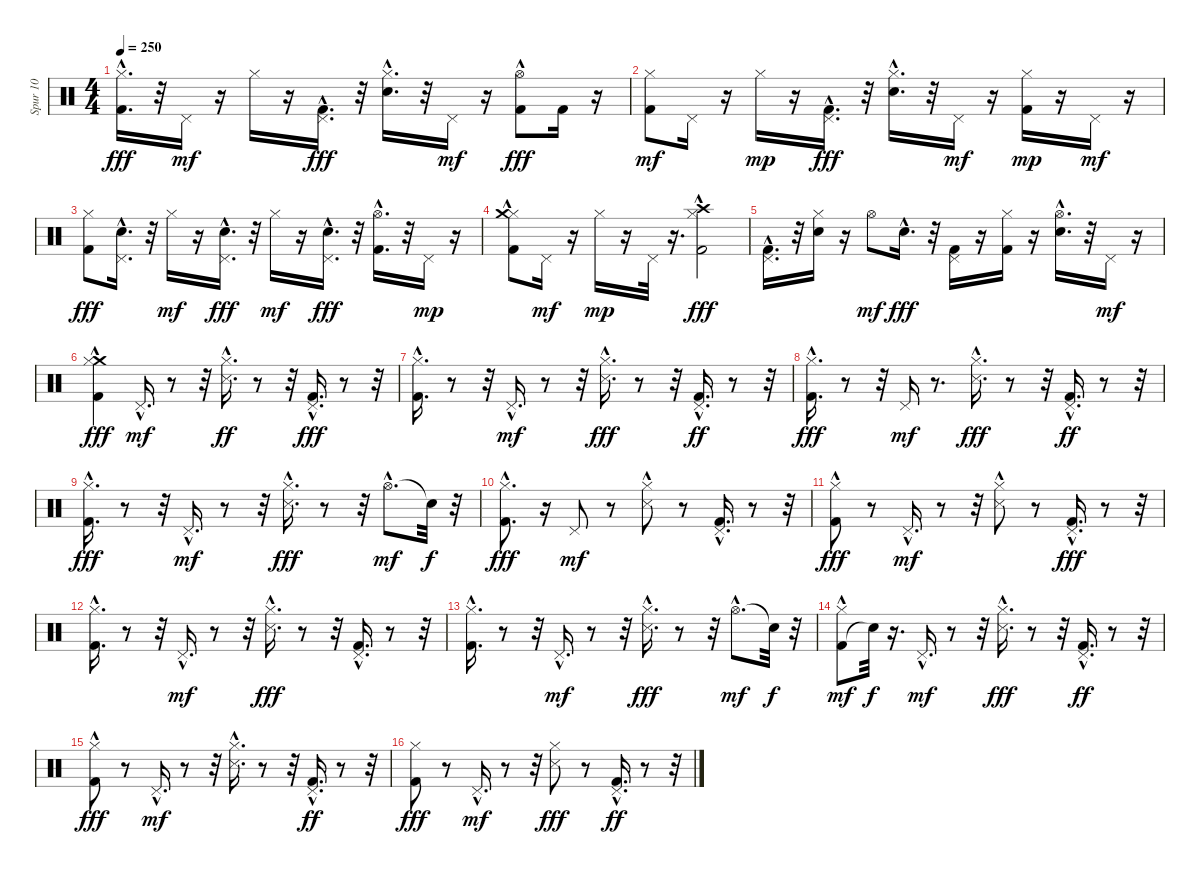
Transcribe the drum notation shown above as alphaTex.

\track ("Spur 10" "Spur 10") {instrument percussion}
\staff {score}
\articulation defaults
\ts (4 4)
\tempo 250
\clef neutral
\ks c
("Hi-Hat (closed)" "Kick (hit) 2"{hac}).16{d dy fff} r.32 "Pedal Hi-Hat (hit)".16{dy mf} r.16 "Hi-Hat (closed)".16 r.16 ("Pedal Hi-Hat (hit)" "Kick (hit) 2"{hac}).16{d dy fff} r.32 ("Hi-Hat (closed)" "Snare (hit) 2"{hac}).16{d} r.32 "Pedal Hi-Hat (hit)".16{dy mf} r.16 ("Hi-Hat (open)"{hac} "Kick (hit) 2").8{dy fff} "Kick (hit) 2".16 r.16 |
("Kick (hit) 2" "Hi-Hat (closed)").8{dy mf} "Pedal Hi-Hat (hit)".16 r.16 "Hi-Hat (closed)".16{dy mp} r.16 ("Pedal Hi-Hat (hit)" "Kick (hit) 2"{hac}).16{d dy fff} r.32 ("Hi-Hat (closed)" "Snare (hit) 2"{hac}).16{d} r.32 "Pedal Hi-Hat (hit)".16{dy mf} r.16 ("Kick (hit) 2" "Hi-Hat (closed)").16{dy mp} r.16 "Pedal Hi-Hat (hit)".16{dy mf} r.16 |
("Hi-Hat (closed)" "Kick (hit) 2").8{dy fff} ("Pedal Hi-Hat (hit)" "Snare (hit) 2"{hac}).16{d} r.32 "Hi-Hat (closed)".16{dy mf} r.16 ("Pedal Hi-Hat (hit)" "Snare (hit) 2"{hac}).16{d dy fff} r.32 "Hi-Hat (closed)".16{dy mf} r.16 ("Pedal Hi-Hat (hit)" "Snare (hit) 2"{hac}).16{d dy fff} r.32 ("Hi-Hat (open)"{hac} "Kick (hit) 2"{hac}).16{d} r.32 "Pedal Hi-Hat (hit)".16{dy mp} r.16 |
("Kick (hit) 2"{hac} "Hi-Hat (closed)" "Crash medium (hit)"{hac}).8 "Pedal Hi-Hat (hit)".16{dy mf} r.16 "Hi-Hat (closed)".16{dy mp} r.16 "Pedal Hi-Hat (hit)".32 r.16{d} ("Crash high (hit)" "Hi-Hat (closed)"{hac} "Kick (hit) 2"{hac}).2{dy fff} |
("Pedal Hi-Hat (hit)" "Kick (hit) 2"{hac}).16{d} r.32 ("Hi-Hat (closed)" "Snare (hit) 2").16 r.16 "Hi-Hat (open)".8{dy mf} "Snare (hit) 2"{hac}.16{d dy fff} r.32 ("Pedal Hi-Hat (hit)" "Kick (hit) 2").16 r.16 ("Hi-Hat (closed)" "Kick (hit) 2").16 r.16 ("Hi-Hat (open)"{hac} "Snare (hit) 2"{hac}).16{d} r.32 "Pedal Hi-Hat (hit)".16{dy mf} r.16 |
("Crash medium (hit)"{hac} "Hi-Hat (closed)"{hac} "Kick (hit) 2").4{dy fff} "Pedal Hi-Hat (hit)"{hac}.16{d dy mf} r.8 r.32 ("Hi-Hat (closed)"{hac} "Snare (side stick) 3"{hac}).16{d dy ff} r.8 r.32 ("Pedal Hi-Hat (hit)"{hac} "Kick (hit) 2"{hac}).16{d dy fff} r.8 r.32 |
("Hi-Hat (closed)"{hac} "Kick (hit) 2"{hac}).16{d} r.8 r.32 "Pedal Hi-Hat (hit)"{hac}.16{d dy mf} r.8 r.32 ("Hi-Hat (closed)"{hac} "Snare (side stick) 3"{hac}).16{d dy fff} r.8 r.32 ("Pedal Hi-Hat (hit)"{hac} "Kick (hit) 2"{hac}).16{d dy ff} r.8 r.32 |
("Hi-Hat (closed)"{hac} "Kick (hit) 2"{hac}).16{d dy fff} r.8 r.32 "Pedal Hi-Hat (hit)".16{dy mf} r.8{d} ("Hi-Hat (closed)"{hac} "Snare (side stick) 3"{hac}).16{d dy fff} r.8 r.32 ("Pedal Hi-Hat (hit)"{hac} "Kick (hit) 2"{hac}).16{d dy ff} r.8 r.32 |
("Hi-Hat (closed)"{hac} "Kick (hit) 2"{hac}).16{d dy fff} r.8 r.32 "Pedal Hi-Hat (hit)"{hac}.16{d dy mf} r.8 r.32 ("Hi-Hat (closed)"{hac} "Snare (side stick) 3"{hac}).16{d dy fff} r.8 r.32 "Hi-Hat (open)"{hac}.8{d dy mf} "Snare (hit)"{t}.32{dy f} r.32 |
("Hi-Hat (closed)"{hac} "Kick (hit) 2").8{d dy fff} r.16 "Pedal Hi-Hat (hit)".8{dy mf} r.8 ("Snare (side stick) 3"{hac} "Hi-Hat (closed)").8 r.8 ("Pedal Hi-Hat (hit)"{hac} "Kick (hit) 2"{hac}).16{d} r.8 r.32 |
("Hi-Hat (closed)"{hac} "Kick (hit) 2").8{dy fff} r.8 "Pedal Hi-Hat (hit)"{hac}.16{d dy mf} r.8 r.32 ("Snare (side stick) 3"{hac} "Hi-Hat (closed)").8 r.8 ("Pedal Hi-Hat (hit)"{hac} "Kick (hit) 2"{hac}).16{d dy fff} r.8 r.32 |
("Hi-Hat (closed)"{hac} "Kick (hit) 2"{hac}).16{d} r.8 r.32 "Pedal Hi-Hat (hit)"{hac}.16{d dy mf} r.8 r.32 ("Hi-Hat (closed)"{hac} "Snare (side stick) 3"{hac}).16{d dy fff} r.8 r.32 ("Pedal Hi-Hat (hit)"{hac} "Kick (hit) 2"{hac}).16{d} r.8 r.32 |
("Hi-Hat (closed)"{hac} "Kick (hit) 2"{hac}).16{d} r.8 r.32 "Pedal Hi-Hat (hit)"{hac}.16{d dy mf} r.8 r.32 ("Hi-Hat (closed)" "Snare (side stick) 3"{hac}).16{d dy fff} r.8 r.32 "Hi-Hat (open)"{hac}.8{d dy mf} "Snare (hit)"{t}.32{dy f} r.32 |
("Kick (hit) 2"{hac} "Hi-Hat (closed)").8{dy mf} "Snare (hit)"{t}.32{dy f} r.16{d} "Pedal Hi-Hat (hit)"{hac}.16{d dy mf} r.8 r.32 ("Hi-Hat (closed)"{hac} "Snare (side stick) 3"{hac}).16{d dy fff} r.8 r.32 ("Pedal Hi-Hat (hit)"{hac} "Kick (hit) 2"{hac}).16{d dy ff} r.8 r.32 |
("Hi-Hat (closed)" "Kick (hit) 2"{hac}).8{dy fff} r.8 "Pedal Hi-Hat (hit)"{hac}.16{d dy mf} r.8 r.32 ("Snare (side stick) 3"{hac} "Hi-Hat (closed)"{hac}).16{d} r.8 r.32 ("Pedal Hi-Hat (hit)"{hac} "Kick (hit) 2"{hac}).16{d dy ff} r.8 r.32 |
("Hi-Hat (closed)" "Kick (hit) 2").8{dy fff} r.8 "Pedal Hi-Hat (hit)"{hac}.16{d dy mf} r.8 r.32 ("Hi-Hat (closed)" "Snare (side stick) 3").8{dy fff} r.8 ("Pedal Hi-Hat (hit)"{hac} "Kick (hit) 2"{hac}).16{d dy ff} r.8 r.32
